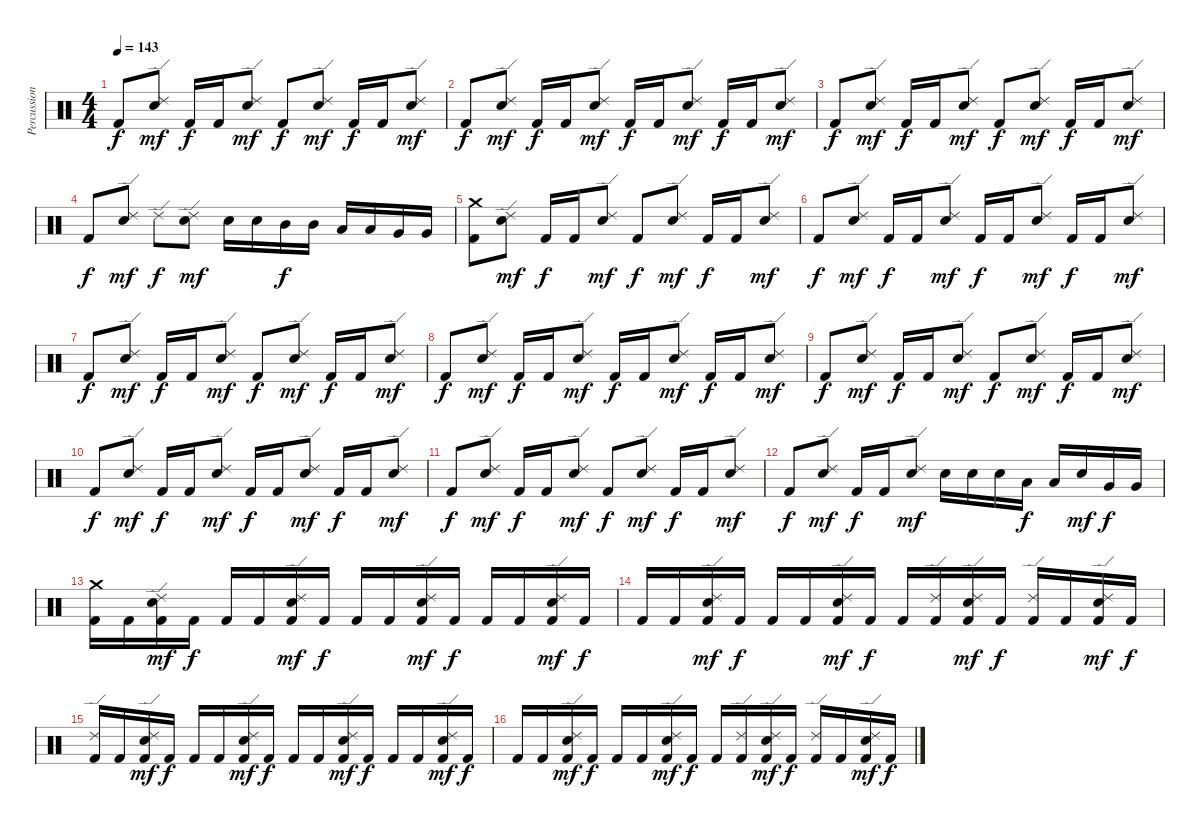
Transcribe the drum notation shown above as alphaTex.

\track ("Percussion" "Percussion") {instrument percussion}
\staff {score}
\articulation defaults
\ts (4 4)
\tempo 143
\clef neutral
\ks c "Kick (hit) 2".8{dy f}
("Ride (edge) 2" "Electric Snare (hit)").8{dy mf} "Kick (hit) 2".16{dy f} "Kick (hit) 2".16 ("Ride (edge) 2" "Electric Snare (hit)").8{dy mf} "Kick (hit) 2".8{dy f} ("Ride (edge) 2" "Electric Snare (hit)").8{dy mf} "Kick (hit) 2".16{dy f} "Kick (hit) 2".16 ("Ride (edge) 2" "Electric Snare (hit)").8{dy mf} |
"Kick (hit) 2".8{dy f} ("Ride (edge) 2" "Electric Snare (hit)").8{dy mf} "Kick (hit) 2".16{dy f} "Kick (hit) 2".16 ("Ride (edge) 2" "Electric Snare (hit)").8{dy mf} "Kick (hit) 2".16{dy f} "Kick (hit) 2".16 ("Ride (edge) 2" "Electric Snare (hit)").8{dy mf} "Kick (hit) 2".16{dy f} "Kick (hit) 2".16 ("Ride (edge) 2" "Electric Snare (hit)").8{dy mf} |
"Kick (hit) 2".8{dy f} ("Ride (edge) 2" "Electric Snare (hit)").8{dy mf} "Kick (hit) 2".16{dy f} "Kick (hit) 2".16 ("Ride (edge) 2" "Electric Snare (hit)").8{dy mf} "Kick (hit) 2".8{dy f} ("Ride (edge) 2" "Electric Snare (hit)").8{dy mf} "Kick (hit) 2".16{dy f} "Kick (hit) 2".16 ("Ride (edge) 2" "Electric Snare (hit)").8{dy mf} |
"Kick (hit) 2".8{dy f} ("Ride (edge) 2" "Electric Snare (hit)").8{dy mf} "Ride (edge) 2".8{dy f} ("Ride (edge) 2" "Electric Snare (hit)").8{dy mf} "Electric Snare (hit)".16 "Electric Snare (hit)".16 "Mid Tom (hit)".16{dy f} "Mid Tom (hit)".16 "Low Tom (hit)".16 "Low Tom (hit)".16 "Very Low Tom (hit)".16 "Very Low Tom (hit)".16 |
("Crash medium (hit)" "Kick (hit) 2").8 ("Ride (edge) 2" "Electric Snare (hit)").8{dy mf} "Kick (hit) 2".16{dy f} "Kick (hit) 2".16 ("Ride (edge) 2" "Electric Snare (hit)").8{dy mf} "Kick (hit) 2".8{dy f} ("Ride (edge) 2" "Electric Snare (hit)").8{dy mf} "Kick (hit) 2".16{dy f} "Kick (hit) 2".16 ("Ride (edge) 2" "Electric Snare (hit)").8{dy mf} |
"Kick (hit) 2".8{dy f} ("Ride (edge) 2" "Electric Snare (hit)").8{dy mf} "Kick (hit) 2".16{dy f} "Kick (hit) 2".16 ("Ride (edge) 2" "Electric Snare (hit)").8{dy mf} "Kick (hit) 2".16{dy f} "Kick (hit) 2".16 ("Ride (edge) 2" "Electric Snare (hit)").8{dy mf} "Kick (hit) 2".16{dy f} "Kick (hit) 2".16 ("Ride (edge) 2" "Electric Snare (hit)").8{dy mf} |
"Kick (hit) 2".8{dy f} ("Ride (edge) 2" "Electric Snare (hit)").8{dy mf} "Kick (hit) 2".16{dy f} "Kick (hit) 2".16 ("Ride (edge) 2" "Electric Snare (hit)").8{dy mf} "Kick (hit) 2".8{dy f} ("Ride (edge) 2" "Electric Snare (hit)").8{dy mf} "Kick (hit) 2".16{dy f} "Kick (hit) 2".16 ("Ride (edge) 2" "Electric Snare (hit)").8{dy mf} |
"Kick (hit) 2".8{dy f} ("Ride (edge) 2" "Electric Snare (hit)").8{dy mf} "Kick (hit) 2".16{dy f} "Kick (hit) 2".16 ("Ride (edge) 2" "Electric Snare (hit)").8{dy mf} "Kick (hit) 2".16{dy f} "Kick (hit) 2".16 ("Ride (edge) 2" "Electric Snare (hit)").8{dy mf} "Kick (hit) 2".16{dy f} "Kick (hit) 2".16 ("Ride (edge) 2" "Electric Snare (hit)").8{dy mf} |
"Kick (hit) 2".8{dy f} ("Ride (edge) 2" "Electric Snare (hit)").8{dy mf} "Kick (hit) 2".16{dy f} "Kick (hit) 2".16 ("Ride (edge) 2" "Electric Snare (hit)").8{dy mf} "Kick (hit) 2".8{dy f} ("Ride (edge) 2" "Electric Snare (hit)").8{dy mf} "Kick (hit) 2".16{dy f} "Kick (hit) 2".16 ("Ride (edge) 2" "Electric Snare (hit)").8{dy mf} |
"Kick (hit) 2".8{dy f} ("Ride (edge) 2" "Electric Snare (hit)").8{dy mf} "Kick (hit) 2".16{dy f} "Kick (hit) 2".16 ("Ride (edge) 2" "Electric Snare (hit)").8{dy mf} "Kick (hit) 2".16{dy f} "Kick (hit) 2".16 ("Ride (edge) 2" "Electric Snare (hit)").8{dy mf} "Kick (hit) 2".16{dy f} "Kick (hit) 2".16 ("Ride (edge) 2" "Electric Snare (hit)").8{dy mf} |
"Kick (hit) 2".8{dy f} ("Ride (edge) 2" "Electric Snare (hit)").8{dy mf} "Kick (hit) 2".16{dy f} "Kick (hit) 2".16 ("Ride (edge) 2" "Electric Snare (hit)").8{dy mf} "Kick (hit) 2".8{dy f} ("Ride (edge) 2" "Electric Snare (hit)").8{dy mf} "Kick (hit) 2".16{dy f} "Kick (hit) 2".16 ("Ride (edge) 2" "Electric Snare (hit)").8{dy mf} |
"Kick (hit) 2".8{dy f} ("Ride (edge) 2" "Electric Snare (hit)").8{dy mf} "Kick (hit) 2".16{dy f} "Kick (hit) 2".16 ("Ride (edge) 2" "Electric Snare (hit)").8{dy mf} "Electric Snare (hit)".16 "Electric Snare (hit)".16 "Electric Snare (hit)".16 "Low Tom (hit)".16{dy f} "Low Tom (hit)".16 "Electric Snare (hit)".16{dy mf} "Very Low Tom (hit)".16{dy f} "Very Low Tom (hit)".16 |
("Crash medium (hit)" "Kick (hit) 2").16 "Kick (hit) 2".16 ("Ride (edge) 2" "Electric Snare (hit)" "Kick (hit) 2").16{dy mf} "Kick (hit) 2".16{dy f} "Kick (hit) 2".16 "Kick (hit) 2".16 ("Ride (edge) 2" "Electric Snare (hit)" "Kick (hit) 2").16{dy mf} "Kick (hit) 2".16{dy f} "Kick (hit) 2".16 "Kick (hit) 2".16 ("Ride (edge) 2" "Electric Snare (hit)" "Kick (hit) 2").16{dy mf} "Kick (hit) 2".16{dy f} "Kick (hit) 2".16 "Kick (hit) 2".16 ("Ride (edge) 2" "Electric Snare (hit)" "Kick (hit) 2").16{dy mf} "Kick (hit) 2".16{dy f} |
"Kick (hit) 2".16 "Kick (hit) 2".16 ("Ride (edge) 2" "Electric Snare (hit)" "Kick (hit) 2").16{dy mf} "Kick (hit) 2".16{dy f} "Kick (hit) 2".16 "Kick (hit) 2".16 ("Ride (edge) 2" "Electric Snare (hit)" "Kick (hit) 2").16{dy mf} "Kick (hit) 2".16{dy f} "Kick (hit) 2".16 ("Ride (edge) 2" "Kick (hit) 2").16 ("Ride (edge) 2" "Electric Snare (hit)" "Kick (hit) 2").16{dy mf} "Kick (hit) 2".16{dy f} ("Ride (edge) 2" "Kick (hit) 2").16 "Kick (hit) 2".16 ("Ride (edge) 2" "Electric Snare (hit)" "Kick (hit) 2").16{dy mf} "Kick (hit) 2".16{dy f} |
("Ride (edge) 2" "Kick (hit) 2").16 "Kick (hit) 2".16 ("Ride (edge) 2" "Electric Snare (hit)" "Kick (hit) 2").16{dy mf} "Kick (hit) 2".16{dy f} "Kick (hit) 2".16 "Kick (hit) 2".16 ("Ride (edge) 2" "Electric Snare (hit)" "Kick (hit) 2").16{dy mf} "Kick (hit) 2".16{dy f} "Kick (hit) 2".16 "Kick (hit) 2".16 ("Ride (edge) 2" "Electric Snare (hit)" "Kick (hit) 2").16{dy mf} "Kick (hit) 2".16{dy f} "Kick (hit) 2".16 "Kick (hit) 2".16 ("Ride (edge) 2" "Electric Snare (hit)" "Kick (hit) 2").16{dy mf} "Kick (hit) 2".16{dy f} |
"Kick (hit) 2".16 "Kick (hit) 2".16 ("Ride (edge) 2" "Electric Snare (hit)" "Kick (hit) 2").16{dy mf} "Kick (hit) 2".16{dy f} "Kick (hit) 2".16 "Kick (hit) 2".16 ("Ride (edge) 2" "Electric Snare (hit)" "Kick (hit) 2").16{dy mf} "Kick (hit) 2".16{dy f} "Kick (hit) 2".16 ("Ride (edge) 2" "Kick (hit) 2").16 ("Ride (edge) 2" "Electric Snare (hit)" "Kick (hit) 2").16{dy mf} "Kick (hit) 2".16{dy f} ("Ride (edge) 2" "Kick (hit) 2").16 "Kick (hit) 2".16 ("Ride (edge) 2" "Electric Snare (hit)" "Kick (hit) 2").16{dy mf} "Kick (hit) 2".16{dy f}
